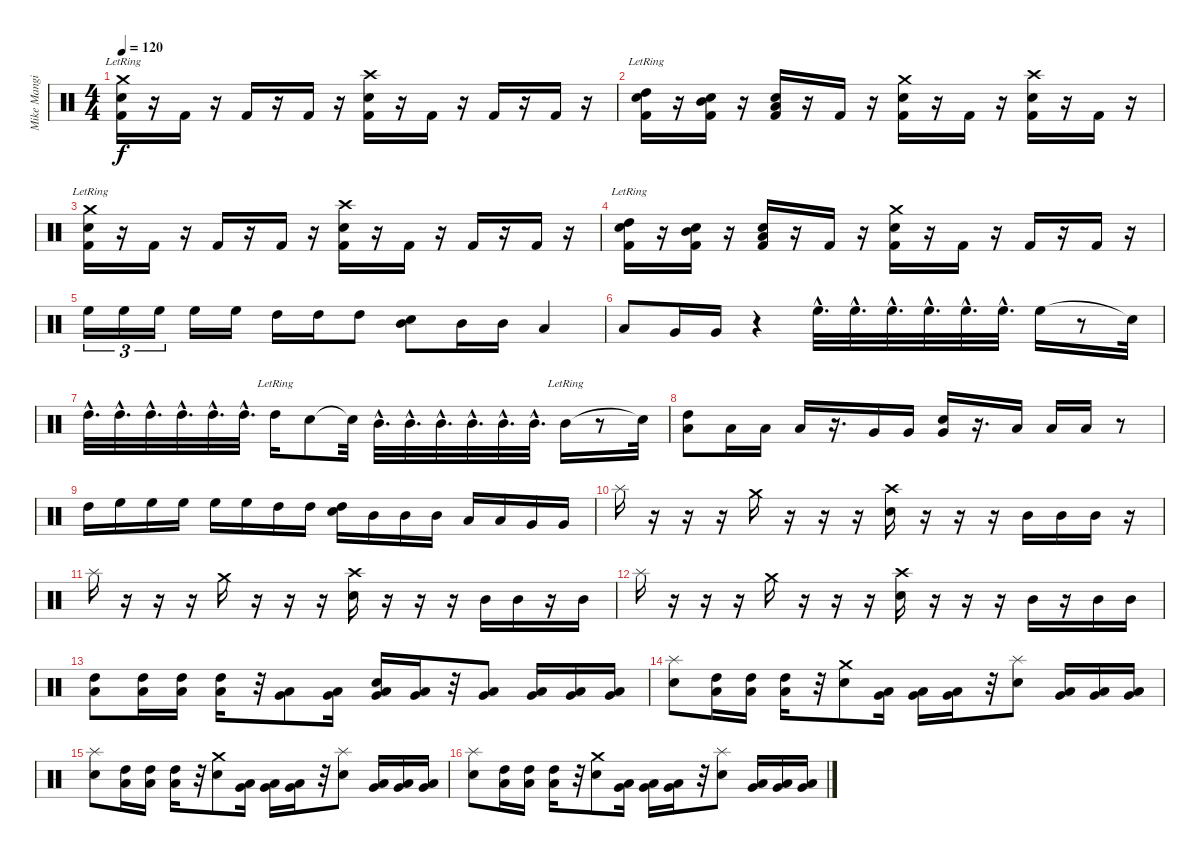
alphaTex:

\track ("Mike Mangini" "Mike Mangi") {instrument percussion}
\staff {score}
\articulation defaults
\ts (4 4)
\tempo 120
\clef neutral
\ks c
("Crash medium (hit)" "Snare (hit) 2" "Kick (hit) 2"{lr}).16{dy f} r.16 "Kick (hit) 2".16 r.16 "Kick (hit) 2".16 r.16 "Kick (hit) 2".16 r.16 ("Crash high (hit)" "Snare (hit) 2" "Kick (hit) 2").16 r.16 "Kick (hit) 2".16 r.16 "Kick (hit) 2".16 r.16 "Kick (hit) 2".16 r.16 |
("High Tom (hit)" "Snare (hit) 2" "Kick (hit) 2"{lr}).16 r.16 ("Mid Tom (hit)" "Snare (hit) 2" "Kick (hit) 2").16 r.16 ("Low Tom (hit)" "Snare (hit) 2" "Kick (hit) 2").16 r.16 "Kick (hit) 2".16 r.16 ("Crash medium (hit)" "Snare (hit) 2" "Kick (hit) 2").16 r.16 "Kick (hit) 2".16 r.16 ("Crash high (hit)" "Snare (hit) 2" "Kick (hit) 2").16 r.16 "Kick (hit) 2".16 r.16 |
("Crash medium (hit)" "Snare (hit) 2" "Kick (hit) 2"{lr}).16 r.16 "Kick (hit) 2".16 r.16 "Kick (hit) 2".16 r.16 "Kick (hit) 2".16 r.16 ("Crash high (hit)" "Snare (hit) 2" "Kick (hit) 2").16 r.16 "Kick (hit) 2".16 r.16 "Kick (hit) 2".16 r.16 "Kick (hit) 2".16 r.16 |
("High Tom (hit)" "Snare (hit) 2" "Kick (hit) 2"{lr}).16 r.16 ("Mid Tom (hit)" "Snare (hit) 2" "Kick (hit) 2").16 r.16 ("Low Tom (hit)" "Snare (hit) 2" "Kick (hit) 2").16 r.16 "Kick (hit) 2".16 r.16 ("Crash medium (hit)" "Snare (hit) 2" "Kick (hit) 2").16 r.16 "Kick (hit) 2".16 r.16 "Kick (hit) 2".16 r.16 "Kick (hit) 2".16 r.16 |
"High Floor Tom (hit)".16{tu (3 2)} "High Floor Tom (hit)".16{tu (3 2)} "High Floor Tom (hit)".16{tu (3 2)} "High Floor Tom (hit)".16 "High Floor Tom (hit)".16 "High Tom (hit)".16 "High Tom (hit)".16 "High Tom (hit)".8 ("Mid Tom (hit)" "Snare (hit) 2").8 "Mid Tom (hit)".16 "Mid Tom (hit)".16 "Low Tom (hit)".4 |
"Low Tom (hit)".8 "Very Low Tom (hit)".16 "Very Low Tom (hit)".16 r.4 "High Floor Tom (hit)"{hac}.32{d} "High Floor Tom (hit)"{hac}.32{d} "High Floor Tom (hit)"{hac}.32{d} "High Floor Tom (hit)"{hac}.32{d} "High Floor Tom (hit)"{hac}.32{d} "High Floor Tom (hit)"{hac}.32{d} "High Floor Tom (hit)".16 r.8 "Snare (hit)"{t}.32 |
"High Tom (hit)"{hac}.32{d} "High Tom (hit)"{hac}.32{d} "High Tom (hit)"{hac}.32{d} "High Tom (hit)"{hac}.32{d} "High Tom (hit)"{hac}.32{d} "High Tom (hit)"{hac}.32{d} "High Tom (hit)"{lr}.16 "Snare (hit) 2".8 "Snare (hit)"{t}.32 "Mid Tom (hit)"{hac}.32{d} "Mid Tom (hit)"{hac}.32{d} "Mid Tom (hit)"{hac}.32{d} "Mid Tom (hit)"{hac}.32{d} "Mid Tom (hit)"{hac}.32{d} "Mid Tom (hit)"{hac}.32{d} "Mid Tom (hit)"{lr}.16 r.8 "Snare (hit)"{t}.32 |
("Low Tom (hit)" "High Tom (hit)").8 "Low Tom (hit)".16 "Low Tom (hit)".16 "Low Tom (hit)".16 r.16{d} "Very Low Tom (hit)".16 "Very Low Tom (hit)".16 ("Very Low Tom (hit)" "Snare (hit) 2").16 r.16{d} "Low Floor Tom (hit)".16 "Low Floor Tom (hit)".16 "Low Floor Tom (hit)".16 r.8 |
"High Tom (hit)".16 "High Floor Tom (hit)".16 "High Floor Tom (hit)".16 "High Floor Tom (hit)".16 "High Floor Tom (hit)".16 "High Floor Tom (hit)".16 "High Tom (hit)".16 "High Tom (hit)".16 ("High Tom (hit)" "Snare (hit) 2").16 "Mid Tom (hit)".16 "Mid Tom (hit)".16 "Mid Tom (hit)".16 "Low Tom (hit)".16 "Low Tom (hit)".16 "Very Low Tom (hit)".16 "Very Low Tom (hit)".16 |
"Splash (hit)".16 r.16 r.16 r.16 "Crash medium (hit)".16 r.16 r.16 r.16 ("Crash high (hit)" "Snare (hit) 2").16 r.16 r.16 r.16 "Mid Tom (hit)".16 "Mid Tom (hit)".16 "Mid Tom (hit)".16 r.16 |
"Splash (hit)".16 r.16 r.16 r.16 "Crash medium (hit)".16 r.16 r.16 r.16 ("Crash high (hit)" "Snare (hit) 2").16 r.16 r.16 r.16 "Mid Tom (hit)".16 "Mid Tom (hit)".16 r.16 "Mid Tom (hit)".16 |
"Splash (hit)".16 r.16 r.16 r.16 "Crash medium (hit)".16 r.16 r.16 r.16 ("Crash high (hit)" "Snare (hit) 2").16 r.16 r.16 r.16 "Mid Tom (hit)".16 r.16 "Mid Tom (hit)".16 "Mid Tom (hit)".16 |
("Low Tom (hit)" "High Tom (hit)").8 ("Low Tom (hit)" "High Tom (hit)").16 ("Low Tom (hit)" "High Tom (hit)").16 ("Low Tom (hit)" "High Tom (hit)").16 r.32 ("Low Tom (hit)" "Very Low Tom (hit)").8 ("Low Tom (hit)" "Very Low Tom (hit)").16 ("Low Tom (hit)" "Very Low Tom (hit)" "Snare (hit) 2").16 ("Low Tom (hit)" "Very Low Tom (hit)").16 r.32 ("Very Low Tom (hit)" "Low Floor Tom (hit)").8 ("Very Low Tom (hit)" "Low Floor Tom (hit)").16 ("Very Low Tom (hit)" "Low Floor Tom (hit)").16 ("Very Low Tom (hit)" "Low Floor Tom (hit)").16 |
("Splash (hit)" "Snare (hit) 2").8 ("Low Tom (hit)" "High Tom (hit)").16 ("Low Tom (hit)" "High Tom (hit)").16 ("Low Tom (hit)" "High Tom (hit)").16 r.32 ("Crash medium (hit)" "Snare (hit) 2").8 ("Low Tom (hit)" "Very Low Tom (hit)").16 ("Low Tom (hit)" "Very Low Tom (hit)").16 ("Low Tom (hit)" "Very Low Tom (hit)").16 r.32 ("Splash (hit)" "Snare (hit) 2").8 ("Very Low Tom (hit)" "Low Floor Tom (hit)").16 ("Very Low Tom (hit)" "Low Floor Tom (hit)").16 ("Very Low Tom (hit)" "Low Floor Tom (hit)").16 |
("Splash (hit)" "Snare (hit) 2").8 ("Low Tom (hit)" "High Tom (hit)").16 ("Low Tom (hit)" "High Tom (hit)").16 ("Low Tom (hit)" "High Tom (hit)").16 r.32 ("Crash medium (hit)" "Snare (hit) 2").8 ("Low Tom (hit)" "Very Low Tom (hit)").16 ("Low Tom (hit)" "Very Low Tom (hit)").16 ("Low Tom (hit)" "Very Low Tom (hit)").16 r.32 ("Splash (hit)" "Snare (hit) 2").8 ("Very Low Tom (hit)" "Low Floor Tom (hit)").16 ("Very Low Tom (hit)" "Low Floor Tom (hit)").16 ("Very Low Tom (hit)" "Low Floor Tom (hit)").16 |
("Splash (hit)" "Snare (hit) 2").8 ("Low Tom (hit)" "High Tom (hit)").16 ("Low Tom (hit)" "High Tom (hit)").16 ("Low Tom (hit)" "High Tom (hit)").16 r.32 ("Crash medium (hit)" "Snare (hit) 2").8 ("Low Tom (hit)" "Very Low Tom (hit)").16 ("Low Tom (hit)" "Very Low Tom (hit)").16 ("Low Tom (hit)" "Very Low Tom (hit)").16 r.32 ("Splash (hit)" "Snare (hit) 2").8 ("Very Low Tom (hit)" "Low Floor Tom (hit)").16 ("Very Low Tom (hit)" "Low Floor Tom (hit)").16 ("Very Low Tom (hit)" "Low Floor Tom (hit)").16
